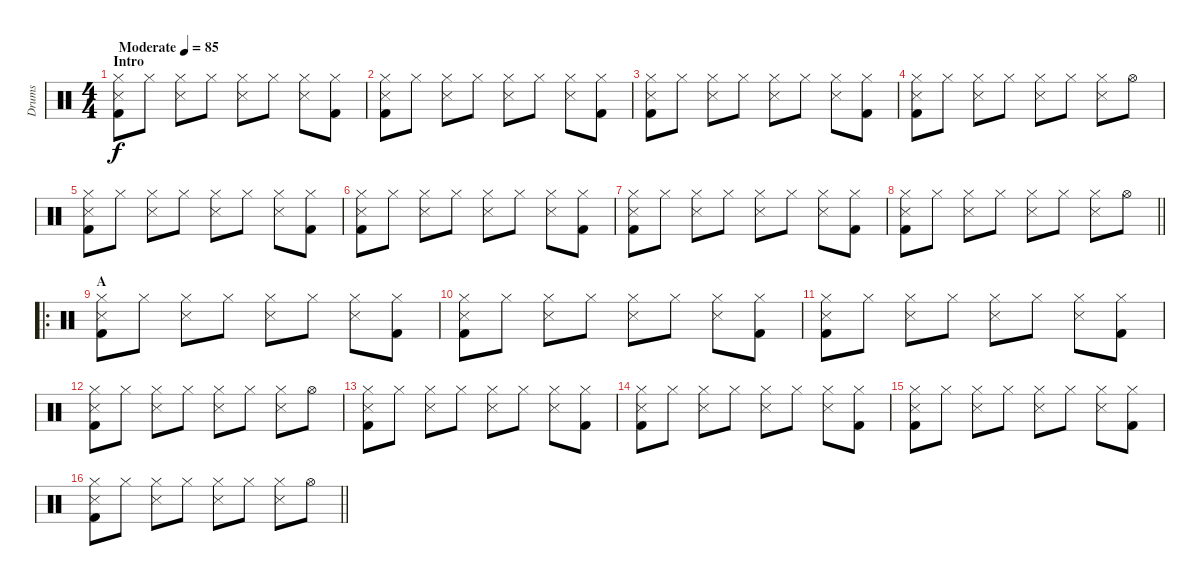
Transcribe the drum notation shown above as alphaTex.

\track ("Drums" "Drums") {instrument percussion}
\staff {score}
\articulation defaults
\ts (4 4)
\section ("" "Intro")
\tempo (85 "Moderate")
\clef neutral
\ks c
("Hi-Hat (closed)" "Snare (side stick) 3" "Kick (hit) 2").8{dy f} "Hi-Hat (closed)".8 ("Hi-Hat (closed)" "Snare (side stick) 3").8 "Hi-Hat (closed)".8 ("Hi-Hat (closed)" "Snare (side stick) 3").8 "Hi-Hat (closed)".8 ("Hi-Hat (closed)" "Snare (side stick) 3").8 ("Hi-Hat (closed)" "Kick (hit) 2").8 |
("Hi-Hat (closed)" "Snare (side stick) 3" "Kick (hit) 2").8 "Hi-Hat (closed)".8 ("Hi-Hat (closed)" "Snare (side stick) 3").8 "Hi-Hat (closed)".8 ("Hi-Hat (closed)" "Snare (side stick) 3").8 "Hi-Hat (closed)".8 ("Hi-Hat (closed)" "Snare (side stick) 3").8 ("Hi-Hat (closed)" "Kick (hit) 2").8 |
("Hi-Hat (closed)" "Snare (side stick) 3" "Kick (hit) 2").8 "Hi-Hat (closed)".8 ("Hi-Hat (closed)" "Snare (side stick) 3").8 "Hi-Hat (closed)".8 ("Hi-Hat (closed)" "Snare (side stick) 3").8 "Hi-Hat (closed)".8 ("Hi-Hat (closed)" "Snare (side stick) 3").8 ("Hi-Hat (closed)" "Kick (hit) 2").8 |
("Hi-Hat (closed)" "Snare (side stick) 3" "Kick (hit) 2").8 "Hi-Hat (closed)".8 ("Hi-Hat (closed)" "Snare (side stick) 3").8 "Hi-Hat (closed)".8 ("Hi-Hat (closed)" "Snare (side stick) 3").8 "Hi-Hat (closed)".8 ("Hi-Hat (closed)" "Snare (side stick) 3").8 "Hi-Hat (open)".8 |
("Hi-Hat (closed)" "Snare (side stick) 3" "Kick (hit) 2").8 "Hi-Hat (closed)".8 ("Hi-Hat (closed)" "Snare (side stick) 3").8 "Hi-Hat (closed)".8 ("Hi-Hat (closed)" "Snare (side stick) 3").8 "Hi-Hat (closed)".8 ("Hi-Hat (closed)" "Snare (side stick) 3").8 ("Hi-Hat (closed)" "Kick (hit) 2").8 |
("Hi-Hat (closed)" "Snare (side stick) 3" "Kick (hit) 2").8 "Hi-Hat (closed)".8 ("Hi-Hat (closed)" "Snare (side stick) 3").8 "Hi-Hat (closed)".8 ("Hi-Hat (closed)" "Snare (side stick) 3").8 "Hi-Hat (closed)".8 ("Hi-Hat (closed)" "Snare (side stick) 3").8 ("Hi-Hat (closed)" "Kick (hit) 2").8 |
("Hi-Hat (closed)" "Snare (side stick) 3" "Kick (hit) 2").8 "Hi-Hat (closed)".8 ("Hi-Hat (closed)" "Snare (side stick) 3").8 "Hi-Hat (closed)".8 ("Hi-Hat (closed)" "Snare (side stick) 3").8 "Hi-Hat (closed)".8 ("Hi-Hat (closed)" "Snare (side stick) 3").8 ("Hi-Hat (closed)" "Kick (hit) 2").8 |
\barLineRight lightlight
("Hi-Hat (closed)" "Snare (side stick) 3" "Kick (hit) 2").8 "Hi-Hat (closed)".8 ("Hi-Hat (closed)" "Snare (side stick) 3").8 "Hi-Hat (closed)".8 ("Hi-Hat (closed)" "Snare (side stick) 3").8 "Hi-Hat (closed)".8 ("Hi-Hat (closed)" "Snare (side stick) 3").8 "Hi-Hat (open)".8 |
\ro
\section ("" "A")
("Hi-Hat (closed)" "Snare (side stick) 3" "Kick (hit) 2").8 "Hi-Hat (closed)".8 ("Hi-Hat (closed)" "Snare (side stick) 3").8 "Hi-Hat (closed)".8 ("Hi-Hat (closed)" "Snare (side stick) 3").8 "Hi-Hat (closed)".8 ("Hi-Hat (closed)" "Snare (side stick) 3").8 ("Hi-Hat (closed)" "Kick (hit) 2").8 |
("Hi-Hat (closed)" "Snare (side stick) 3" "Kick (hit) 2").8 "Hi-Hat (closed)".8 ("Hi-Hat (closed)" "Snare (side stick) 3").8 "Hi-Hat (closed)".8 ("Hi-Hat (closed)" "Snare (side stick) 3").8 "Hi-Hat (closed)".8 ("Hi-Hat (closed)" "Snare (side stick) 3").8 ("Hi-Hat (closed)" "Kick (hit) 2").8 |
("Hi-Hat (closed)" "Snare (side stick) 3" "Kick (hit) 2").8 "Hi-Hat (closed)".8 ("Hi-Hat (closed)" "Snare (side stick) 3").8 "Hi-Hat (closed)".8 ("Hi-Hat (closed)" "Snare (side stick) 3").8 "Hi-Hat (closed)".8 ("Hi-Hat (closed)" "Snare (side stick) 3").8 ("Hi-Hat (closed)" "Kick (hit) 2").8 |
("Hi-Hat (closed)" "Snare (side stick) 3" "Kick (hit) 2").8 "Hi-Hat (closed)".8 ("Hi-Hat (closed)" "Snare (side stick) 3").8 "Hi-Hat (closed)".8 ("Hi-Hat (closed)" "Snare (side stick) 3").8 "Hi-Hat (closed)".8 ("Hi-Hat (closed)" "Snare (side stick) 3").8 "Hi-Hat (open)".8 |
("Hi-Hat (closed)" "Snare (side stick) 3" "Kick (hit) 2").8 "Hi-Hat (closed)".8 ("Hi-Hat (closed)" "Snare (side stick) 3").8 "Hi-Hat (closed)".8 ("Hi-Hat (closed)" "Snare (side stick) 3").8 "Hi-Hat (closed)".8 ("Hi-Hat (closed)" "Snare (side stick) 3").8 ("Hi-Hat (closed)" "Kick (hit) 2").8 |
("Hi-Hat (closed)" "Snare (side stick) 3" "Kick (hit) 2").8 "Hi-Hat (closed)".8 ("Hi-Hat (closed)" "Snare (side stick) 3").8 "Hi-Hat (closed)".8 ("Hi-Hat (closed)" "Snare (side stick) 3").8 "Hi-Hat (closed)".8 ("Hi-Hat (closed)" "Snare (side stick) 3").8 ("Hi-Hat (closed)" "Kick (hit) 2").8 |
("Hi-Hat (closed)" "Snare (side stick) 3" "Kick (hit) 2").8 "Hi-Hat (closed)".8 ("Hi-Hat (closed)" "Snare (side stick) 3").8 "Hi-Hat (closed)".8 ("Hi-Hat (closed)" "Snare (side stick) 3").8 "Hi-Hat (closed)".8 ("Hi-Hat (closed)" "Snare (side stick) 3").8 ("Hi-Hat (closed)" "Kick (hit) 2").8 |
\barLineRight lightlight
("Hi-Hat (closed)" "Snare (side stick) 3" "Kick (hit) 2").8 "Hi-Hat (closed)".8 ("Hi-Hat (closed)" "Snare (side stick) 3").8 "Hi-Hat (closed)".8 ("Hi-Hat (closed)" "Snare (side stick) 3").8 "Hi-Hat (closed)".8 ("Hi-Hat (closed)" "Snare (side stick) 3").8 "Hi-Hat (open)".8
